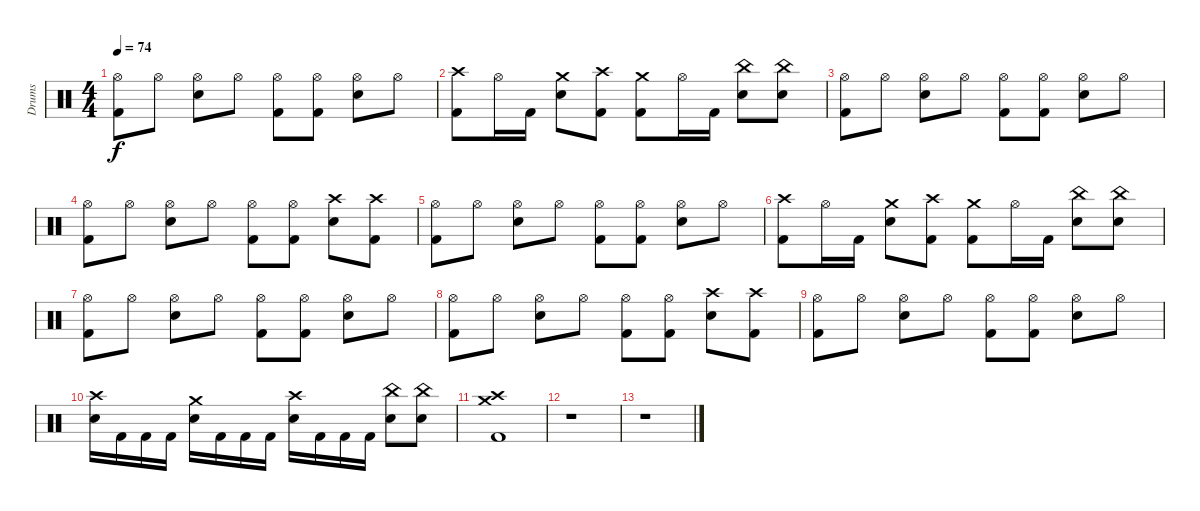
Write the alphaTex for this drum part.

\track ("Drums" "Drums") {instrument percussion}
\staff {score}
\articulation defaults
\ts (4 4)
\tempo 74
\clef neutral
\ks c
("Hi-Hat (open)" "Kick (hit) 2").8{dy f} "Hi-Hat (open)".8 ("Hi-Hat (open)" "Snare (hit) 2").8 "Hi-Hat (open)".8 ("Hi-Hat (open)" "Kick (hit) 2").8 ("Hi-Hat (open)" "Kick (hit) 2").8 ("Hi-Hat (open)" "Snare (hit) 2").8 "Hi-Hat (open)".8 |
("Crash high (hit)" "Kick (hit) 2").8 "Hi-Hat (open)".16 "Kick (hit) 2".16 ("Crash medium (hit)" "Snare (hit) 2").8 ("Crash high (hit)" "Kick (hit) 2").8 ("Crash medium (hit)" "Kick (hit) 2").8 "Hi-Hat (open)".16 "Kick (hit) 2".16 ("China (hit)" "Snare (hit) 2").8 ("China (hit)" "Snare (hit) 2").8 |
("Hi-Hat (open)" "Kick (hit) 2").8 "Hi-Hat (open)".8 ("Hi-Hat (open)" "Snare (hit) 2").8 "Hi-Hat (open)".8 ("Hi-Hat (open)" "Kick (hit) 2").8 ("Hi-Hat (open)" "Kick (hit) 2").8 ("Hi-Hat (open)" "Snare (hit) 2").8 "Hi-Hat (open)".8 |
("Hi-Hat (open)" "Kick (hit) 2").8 "Hi-Hat (open)".8 ("Hi-Hat (open)" "Snare (hit) 2").8 "Hi-Hat (open)".8 ("Hi-Hat (open)" "Kick (hit) 2").8 ("Hi-Hat (open)" "Kick (hit) 2").8 ("Crash high (hit)" "Snare (hit) 2").8 ("Crash high (hit)" "Kick (hit) 2").8 |
("Hi-Hat (open)" "Kick (hit) 2").8 "Hi-Hat (open)".8 ("Hi-Hat (open)" "Snare (hit) 2").8 "Hi-Hat (open)".8 ("Hi-Hat (open)" "Kick (hit) 2").8 ("Hi-Hat (open)" "Kick (hit) 2").8 ("Hi-Hat (open)" "Snare (hit) 2").8 "Hi-Hat (open)".8 |
("Crash high (hit)" "Kick (hit) 2").8 "Hi-Hat (open)".16 "Kick (hit) 2".16 ("Crash medium (hit)" "Snare (hit) 2").8 ("Crash high (hit)" "Kick (hit) 2").8 ("Crash medium (hit)" "Kick (hit) 2").8 "Hi-Hat (open)".16 "Kick (hit) 2".16 ("China (hit)" "Snare (hit) 2").8 ("China (hit)" "Snare (hit) 2").8 |
("Hi-Hat (open)" "Kick (hit) 2").8 "Hi-Hat (open)".8 ("Hi-Hat (open)" "Snare (hit) 2").8 "Hi-Hat (open)".8 ("Hi-Hat (open)" "Kick (hit) 2").8 ("Hi-Hat (open)" "Kick (hit) 2").8 ("Hi-Hat (open)" "Snare (hit) 2").8 "Hi-Hat (open)".8 |
("Hi-Hat (open)" "Kick (hit) 2").8 "Hi-Hat (open)".8 ("Hi-Hat (open)" "Snare (hit) 2").8 "Hi-Hat (open)".8 ("Hi-Hat (open)" "Kick (hit) 2").8 ("Hi-Hat (open)" "Kick (hit) 2").8 ("Crash high (hit)" "Snare (hit) 2").8 ("Crash high (hit)" "Kick (hit) 2").8 |
("Hi-Hat (open)" "Kick (hit) 2").8 "Hi-Hat (open)".8 ("Hi-Hat (open)" "Snare (hit) 2").8 "Hi-Hat (open)".8 ("Hi-Hat (open)" "Kick (hit) 2").8 ("Hi-Hat (open)" "Kick (hit) 2").8 ("Hi-Hat (open)" "Snare (hit) 2").8 "Hi-Hat (open)".8 |
("Crash high (hit)" "Snare (hit) 2").16 "Kick (hit) 2".16 "Kick (hit) 2".16 "Kick (hit) 2".16 ("Crash medium (hit)" "Snare (hit) 2").16 "Kick (hit) 2".16 "Kick (hit) 2".16 "Kick (hit) 2".16 ("Crash high (hit)" "Snare (hit) 2").16 "Kick (hit) 2".16 "Kick (hit) 2".16 "Kick (hit) 2".16 ("China (hit)" "Snare (hit) 2").8 ("China (hit)" "Snare (hit) 2").8 |
("Crash high (hit)" "Crash medium (hit)" "Kick (hit) 2").1 |
r.1 |
r.1
